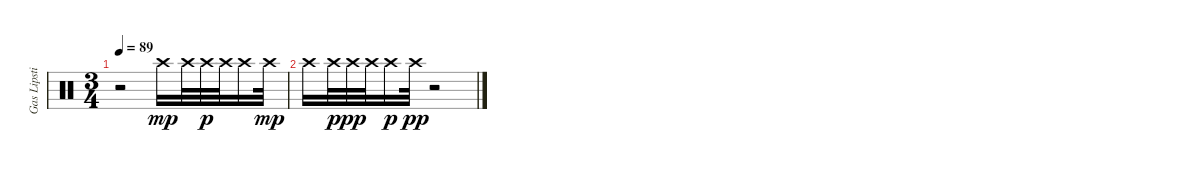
\track ("Gas Lipstick (Drums)" "Gas Lipsti") {instrument percussion}
\staff {score}
\articulation defaults
\ts (3 4)
\tempo 89
\clef neutral
\ks c
r.2{dy f} "Crash high (hit)".16{dy mp} "Crash high (hit)".32 "Crash high (hit)".32{dy p} "Crash high (hit)".32 "Crash high (hit)".16 "Crash high (hit)".32{dy mp} |
"Crash high (hit)".16 "Crash high (hit)".32{dy p} "Crash high (hit)".32{dy pp} "Crash high (hit)".32 "Crash high (hit)".16{dy p} "Crash high (hit)".32{dy pp} r.2
